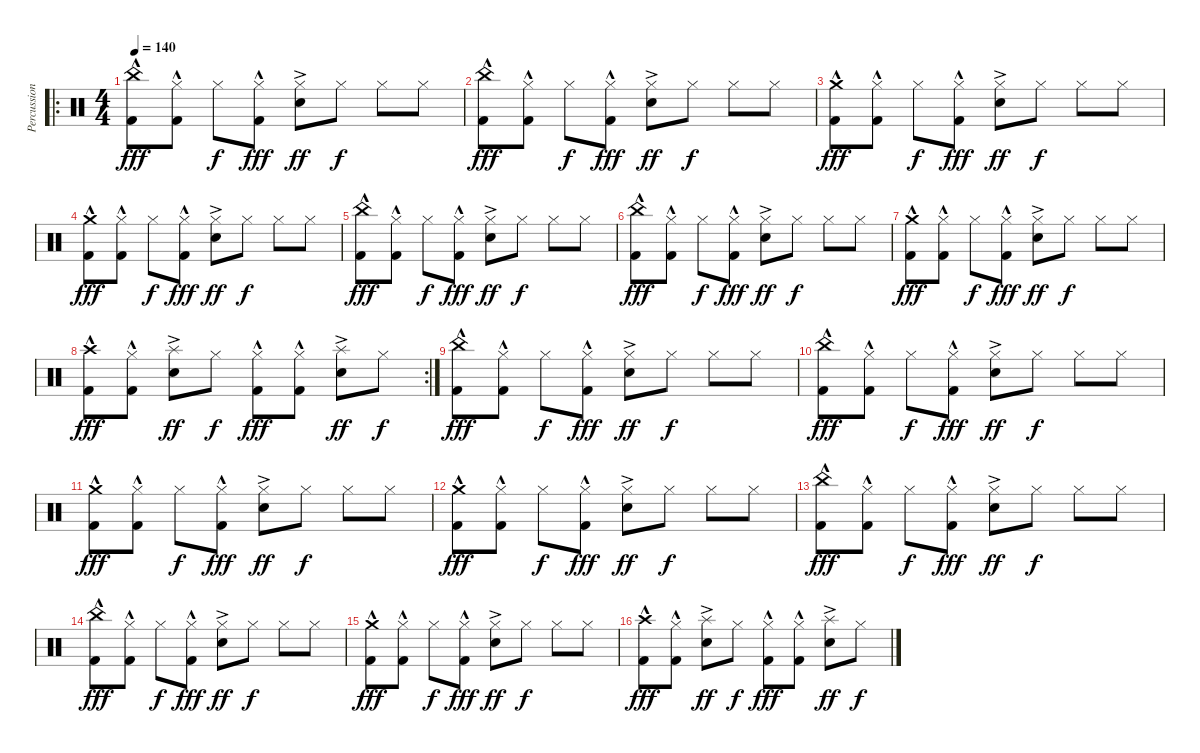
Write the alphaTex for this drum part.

\track ("Percussion" "Percussion") {instrument percussion}
\staff {score}
\articulation defaults
\ro
\ts (4 4)
\tempo 140
\clef neutral
\ks c
("China (hit)" "Kick (hit) 2"{hac}).8{dy fff} ("Hi-Hat (closed)" "Kick (hit) 2"{hac}).8 "Hi-Hat (closed)".8{dy f} ("Hi-Hat (closed)" "Kick (hit) 2"{hac}).8{dy fff} ("Hi-Hat (closed)" "Snare (hit) 2"{ac}).8{dy ff} "Hi-Hat (closed)".8{dy f} "Hi-Hat (closed)".8 "Hi-Hat (closed)".8 |
("China (hit)" "Kick (hit) 2"{hac}).8{dy fff} ("Hi-Hat (closed)" "Kick (hit) 2"{hac}).8 "Hi-Hat (closed)".8{dy f} ("Hi-Hat (closed)" "Kick (hit) 2"{hac}).8{dy fff} ("Hi-Hat (closed)" "Snare (hit) 2"{ac}).8{dy ff} "Hi-Hat (closed)".8{dy f} "Hi-Hat (closed)".8 "Hi-Hat (closed)".8 |
("Crash medium (hit)" "Kick (hit) 2"{hac}).8{dy fff} ("Hi-Hat (closed)" "Kick (hit) 2"{hac}).8 "Hi-Hat (closed)".8{dy f} ("Hi-Hat (closed)" "Kick (hit) 2"{hac}).8{dy fff} ("Hi-Hat (closed)" "Snare (hit) 2"{ac}).8{dy ff} "Hi-Hat (closed)".8{dy f} "Hi-Hat (closed)".8 "Hi-Hat (closed)".8 |
("Crash medium (hit)" "Kick (hit) 2"{hac}).8{dy fff} ("Hi-Hat (closed)" "Kick (hit) 2"{hac}).8 "Hi-Hat (closed)".8{dy f} ("Hi-Hat (closed)" "Kick (hit) 2"{hac}).8{dy fff} ("Hi-Hat (closed)" "Snare (hit) 2"{ac}).8{dy ff} "Hi-Hat (closed)".8{dy f} "Hi-Hat (closed)".8 "Hi-Hat (closed)".8 |
("China (hit)" "Kick (hit) 2"{hac}).8{dy fff} ("Hi-Hat (closed)" "Kick (hit) 2"{hac}).8 "Hi-Hat (closed)".8{dy f} ("Hi-Hat (closed)" "Kick (hit) 2"{hac}).8{dy fff} ("Hi-Hat (closed)" "Snare (hit) 2"{ac}).8{dy ff} "Hi-Hat (closed)".8{dy f} "Hi-Hat (closed)".8 "Hi-Hat (closed)".8 |
("China (hit)" "Kick (hit) 2"{hac}).8{dy fff} ("Hi-Hat (closed)" "Kick (hit) 2"{hac}).8 "Hi-Hat (closed)".8{dy f} ("Hi-Hat (closed)" "Kick (hit) 2"{hac}).8{dy fff} ("Hi-Hat (closed)" "Snare (hit) 2"{ac}).8{dy ff} "Hi-Hat (closed)".8{dy f} "Hi-Hat (closed)".8 "Hi-Hat (closed)".8 |
("Crash medium (hit)" "Kick (hit) 2"{hac}).8{dy fff} ("Hi-Hat (closed)" "Kick (hit) 2"{hac}).8 "Hi-Hat (closed)".8{dy f} ("Hi-Hat (closed)" "Kick (hit) 2"{hac}).8{dy fff} ("Hi-Hat (closed)" "Snare (hit) 2"{ac}).8{dy ff} "Hi-Hat (closed)".8{dy f} "Hi-Hat (closed)".8 "Hi-Hat (closed)".8 |
\rc 2
("Crash high (hit)" "Kick (hit) 2"{hac}).8{dy fff} ("Hi-Hat (closed)" "Kick (hit) 2"{hac}).8 ("Splash (hit)" "Snare (hit) 2"{ac}).8{dy ff} "Hi-Hat (closed)".8{dy f} ("Hi-Hat (closed)" "Kick (hit) 2"{hac}).8{dy fff} ("Hi-Hat (closed)" "Kick (hit) 2"{hac}).8 ("Splash (hit)" "Snare (hit) 2"{ac}).8{dy ff} "Hi-Hat (closed)".8{dy f} |
("China (hit)" "Kick (hit) 2"{hac}).8{dy fff} ("Hi-Hat (closed)" "Kick (hit) 2"{hac}).8 "Hi-Hat (closed)".8{dy f} ("Hi-Hat (closed)" "Kick (hit) 2"{hac}).8{dy fff} ("Hi-Hat (closed)" "Snare (hit) 2"{ac}).8{dy ff} "Hi-Hat (closed)".8{dy f} "Hi-Hat (closed)".8 "Hi-Hat (closed)".8 |
("China (hit)" "Kick (hit) 2"{hac}).8{dy fff} ("Hi-Hat (closed)" "Kick (hit) 2"{hac}).8 "Hi-Hat (closed)".8{dy f} ("Hi-Hat (closed)" "Kick (hit) 2"{hac}).8{dy fff} ("Hi-Hat (closed)" "Snare (hit) 2"{ac}).8{dy ff} "Hi-Hat (closed)".8{dy f} "Hi-Hat (closed)".8 "Hi-Hat (closed)".8 |
("Crash medium (hit)" "Kick (hit) 2"{hac}).8{dy fff} ("Hi-Hat (closed)" "Kick (hit) 2"{hac}).8 "Hi-Hat (closed)".8{dy f} ("Hi-Hat (closed)" "Kick (hit) 2"{hac}).8{dy fff} ("Hi-Hat (closed)" "Snare (hit) 2"{ac}).8{dy ff} "Hi-Hat (closed)".8{dy f} "Hi-Hat (closed)".8 "Hi-Hat (closed)".8 |
("Crash medium (hit)" "Kick (hit) 2"{hac}).8{dy fff} ("Hi-Hat (closed)" "Kick (hit) 2"{hac}).8 "Hi-Hat (closed)".8{dy f} ("Hi-Hat (closed)" "Kick (hit) 2"{hac}).8{dy fff} ("Hi-Hat (closed)" "Snare (hit) 2"{ac}).8{dy ff} "Hi-Hat (closed)".8{dy f} "Hi-Hat (closed)".8 "Hi-Hat (closed)".8 |
("China (hit)" "Kick (hit) 2"{hac}).8{dy fff} ("Hi-Hat (closed)" "Kick (hit) 2"{hac}).8 "Hi-Hat (closed)".8{dy f} ("Hi-Hat (closed)" "Kick (hit) 2"{hac}).8{dy fff} ("Hi-Hat (closed)" "Snare (hit) 2"{ac}).8{dy ff} "Hi-Hat (closed)".8{dy f} "Hi-Hat (closed)".8 "Hi-Hat (closed)".8 |
("China (hit)" "Kick (hit) 2"{hac}).8{dy fff} ("Hi-Hat (closed)" "Kick (hit) 2"{hac}).8 "Hi-Hat (closed)".8{dy f} ("Hi-Hat (closed)" "Kick (hit) 2"{hac}).8{dy fff} ("Hi-Hat (closed)" "Snare (hit) 2"{ac}).8{dy ff} "Hi-Hat (closed)".8{dy f} "Hi-Hat (closed)".8 "Hi-Hat (closed)".8 |
("Crash medium (hit)" "Kick (hit) 2"{hac}).8{dy fff} ("Hi-Hat (closed)" "Kick (hit) 2"{hac}).8 "Hi-Hat (closed)".8{dy f} ("Hi-Hat (closed)" "Kick (hit) 2"{hac}).8{dy fff} ("Hi-Hat (closed)" "Snare (hit) 2"{ac}).8{dy ff} "Hi-Hat (closed)".8{dy f} "Hi-Hat (closed)".8 "Hi-Hat (closed)".8 |
("Crash high (hit)" "Kick (hit) 2"{hac}).8{dy fff} ("Hi-Hat (closed)" "Kick (hit) 2"{hac}).8 ("Splash (hit)" "Snare (hit) 2"{ac}).8{dy ff} "Hi-Hat (closed)".8{dy f} ("Hi-Hat (closed)" "Kick (hit) 2"{hac}).8{dy fff} ("Hi-Hat (closed)" "Kick (hit) 2"{hac}).8 ("Splash (hit)" "Snare (hit) 2"{ac}).8{dy ff} "Hi-Hat (closed)".8{dy f}
